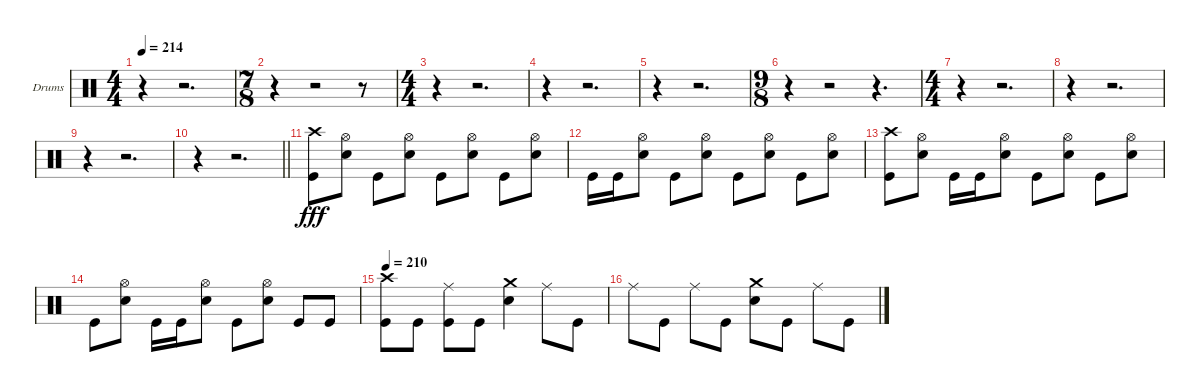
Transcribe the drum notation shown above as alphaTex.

\bracketExtendMode groupsimilarinstruments
\firstSystemTrackNameOrientation horizontal
\otherSystemsTrackNameOrientation horizontal
\track ("Drumkit" "Drums") {instrument percussion}
\staff {score}
\articulation defaults
\ts (4 4)
\tempo 214
\clef neutral
\ks c
r.4{dy fff} r.2{d} |
\ts (7 8)
\beaming (8 2 2 2 2)
r.4 r.2 r.8 |
\ts (4 4)
\beaming (8 2 2 2 2)
r.4 r.2{d} |
r.4 r.2{d} |
r.4 r.2{d} |
\ts (9 8)
\beaming (8 2 2 2 3)
r.4 r.2 r.4{d} |
\ts (4 4)
\beaming (8 2 2 2 2)
r.4 r.2{d} |
r.4 r.2{d} |
r.4 r.2{d} |
\barLineRight lightlight
r.4 r.2{d} |
("Crash high (hit)" "Kick (hit)").8 ("Hi-Hat (open)" "Snare (hit) 2").8 "Kick (hit)".8 ("Hi-Hat (open)" "Snare (hit) 2").8 "Kick (hit)".8 ("Hi-Hat (open)" "Snare (hit) 2").8 "Kick (hit)".8 ("Hi-Hat (open)" "Snare (hit) 2").8 |
"Kick (hit)".16 "Kick (hit)".16 ("Hi-Hat (open)" "Snare (hit) 2").8 "Kick (hit)".8 ("Hi-Hat (open)" "Snare (hit) 2").8 "Kick (hit)".8 ("Hi-Hat (open)" "Snare (hit) 2").8 "Kick (hit)".8 ("Hi-Hat (open)" "Snare (hit) 2").8 |
("Crash high (hit)" "Kick (hit)").8 ("Hi-Hat (open)" "Snare (hit) 2").8 "Kick (hit)".16 "Kick (hit)".16 ("Hi-Hat (open)" "Snare (hit) 2").8 "Kick (hit)".8 ("Hi-Hat (open)" "Snare (hit) 2").8 "Kick (hit)".8 ("Hi-Hat (open)" "Snare (hit) 2").8 |
"Kick (hit)".8 ("Hi-Hat (open)" "Snare (hit) 2").8 "Kick (hit)".16 "Kick (hit)".16 ("Hi-Hat (open)" "Snare (hit) 2").8 "Kick (hit)".8 ("Hi-Hat (open)" "Snare (hit) 2").8 "Kick (hit)".8 "Kick (hit)".8 |
\tempo 210
("Crash high (hit)" "Kick (hit)").8 "Kick (hit)".8 ("Ride (middle)" "Kick (hit)").8 "Kick (hit)".8 ("Crash medium (hit)" "Snare (hit) 2").4 "Ride (middle)".8 "Kick (hit)".8 |
"Ride (middle)".8 "Kick (hit)".8 "Ride (middle)".8 "Kick (hit)".8 ("Crash medium (hit)" "Snare (hit) 2").8 "Kick (hit)".8 "Ride (middle)".8 "Kick (hit)".8
